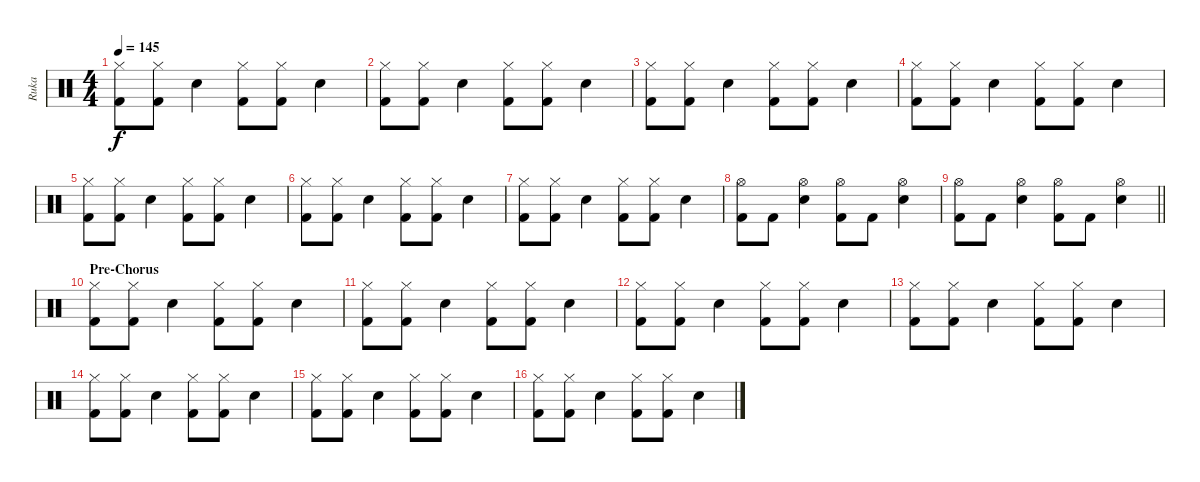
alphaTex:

\track ("Ruka" "Ruka") {instrument percussion}
\staff {score}
\articulation defaults
\ts (4 4)
\tempo 145
\clef neutral
\ks c
("Hi-Hat (closed)" "Kick (hit) 2").8{dy f} ("Hi-Hat (closed)" "Kick (hit) 2").8 "Electric Snare (hit)".4 ("Hi-Hat (closed)" "Kick (hit) 2").8 ("Hi-Hat (closed)" "Kick (hit) 2").8 "Electric Snare (hit)".4 |
("Hi-Hat (closed)" "Kick (hit) 2").8 ("Hi-Hat (closed)" "Kick (hit) 2").8 "Electric Snare (hit)".4 ("Hi-Hat (closed)" "Kick (hit) 2").8 ("Hi-Hat (closed)" "Kick (hit) 2").8 "Electric Snare (hit)".4 |
("Hi-Hat (closed)" "Kick (hit) 2").8 ("Hi-Hat (closed)" "Kick (hit) 2").8 "Electric Snare (hit)".4 ("Hi-Hat (closed)" "Kick (hit) 2").8 ("Hi-Hat (closed)" "Kick (hit) 2").8 "Electric Snare (hit)".4 |
("Hi-Hat (closed)" "Kick (hit) 2").8 ("Hi-Hat (closed)" "Kick (hit) 2").8 "Electric Snare (hit)".4 ("Hi-Hat (closed)" "Kick (hit) 2").8 ("Hi-Hat (closed)" "Kick (hit) 2").8 "Electric Snare (hit)".4 |
("Hi-Hat (closed)" "Kick (hit) 2").8 ("Hi-Hat (closed)" "Kick (hit) 2").8 "Electric Snare (hit)".4 ("Hi-Hat (closed)" "Kick (hit) 2").8 ("Hi-Hat (closed)" "Kick (hit) 2").8 "Electric Snare (hit)".4 |
("Hi-Hat (closed)" "Kick (hit) 2").8 ("Hi-Hat (closed)" "Kick (hit) 2").8 "Electric Snare (hit)".4 ("Hi-Hat (closed)" "Kick (hit) 2").8 ("Hi-Hat (closed)" "Kick (hit) 2").8 "Electric Snare (hit)".4 |
("Hi-Hat (closed)" "Kick (hit) 2").8 ("Hi-Hat (closed)" "Kick (hit) 2").8 "Electric Snare (hit)".4 ("Hi-Hat (closed)" "Kick (hit) 2").8 ("Hi-Hat (closed)" "Kick (hit) 2").8 "Electric Snare (hit)".4 |
("Hi-Hat (open)" "Kick (hit) 2").8 "Kick (hit) 2".8 ("Hi-Hat (open)" "Electric Snare (hit)").4 ("Hi-Hat (open)" "Kick (hit) 2").8 "Kick (hit) 2".8 ("Hi-Hat (open)" "Electric Snare (hit)").4 |
\barLineRight lightlight
("Hi-Hat (open)" "Kick (hit) 2").8 "Kick (hit) 2".8 ("Hi-Hat (open)" "Electric Snare (hit)").4 ("Hi-Hat (open)" "Kick (hit) 2").8 "Kick (hit) 2".8 ("Hi-Hat (open)" "Electric Snare (hit)").4 |
\section ("" "Pre-Chorus")
("Hi-Hat (closed)" "Kick (hit) 2").8 ("Hi-Hat (closed)" "Kick (hit) 2").8 "Electric Snare (hit)".4 ("Hi-Hat (closed)" "Kick (hit) 2").8 ("Hi-Hat (closed)" "Kick (hit) 2").8 "Electric Snare (hit)".4 |
("Hi-Hat (closed)" "Kick (hit) 2").8 ("Hi-Hat (closed)" "Kick (hit) 2").8 "Electric Snare (hit)".4 ("Hi-Hat (closed)" "Kick (hit) 2").8 ("Hi-Hat (closed)" "Kick (hit) 2").8 "Electric Snare (hit)".4 |
("Hi-Hat (closed)" "Kick (hit) 2").8 ("Hi-Hat (closed)" "Kick (hit) 2").8 "Electric Snare (hit)".4 ("Hi-Hat (closed)" "Kick (hit) 2").8 ("Hi-Hat (closed)" "Kick (hit) 2").8 "Electric Snare (hit)".4 |
("Hi-Hat (closed)" "Kick (hit) 2").8 ("Hi-Hat (closed)" "Kick (hit) 2").8 "Electric Snare (hit)".4 ("Hi-Hat (closed)" "Kick (hit) 2").8 ("Hi-Hat (closed)" "Kick (hit) 2").8 "Electric Snare (hit)".4 |
("Hi-Hat (closed)" "Kick (hit) 2").8 ("Hi-Hat (closed)" "Kick (hit) 2").8 "Electric Snare (hit)".4 ("Hi-Hat (closed)" "Kick (hit) 2").8 ("Hi-Hat (closed)" "Kick (hit) 2").8 "Electric Snare (hit)".4 |
("Hi-Hat (closed)" "Kick (hit) 2").8 ("Hi-Hat (closed)" "Kick (hit) 2").8 "Electric Snare (hit)".4 ("Hi-Hat (closed)" "Kick (hit) 2").8 ("Hi-Hat (closed)" "Kick (hit) 2").8 "Electric Snare (hit)".4 |
("Hi-Hat (closed)" "Kick (hit) 2").8 ("Hi-Hat (closed)" "Kick (hit) 2").8 "Electric Snare (hit)".4 ("Hi-Hat (closed)" "Kick (hit) 2").8 ("Hi-Hat (closed)" "Kick (hit) 2").8 "Electric Snare (hit)".4
